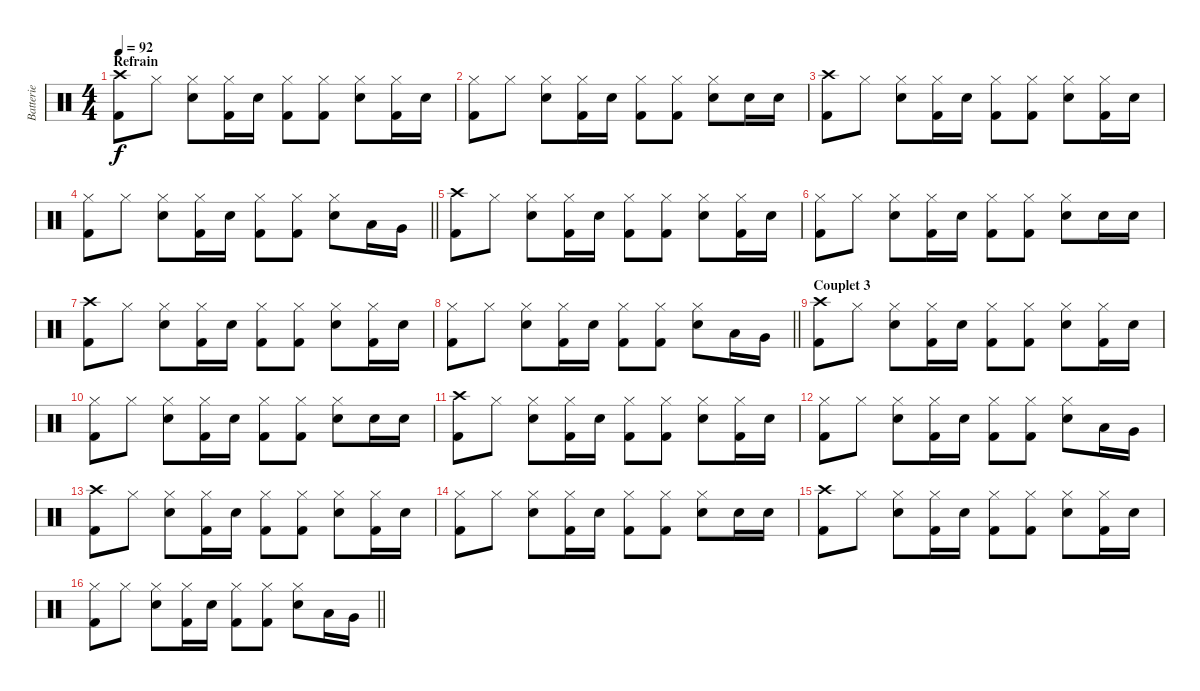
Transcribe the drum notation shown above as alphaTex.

\track ("Batterie" "Batterie") {instrument percussion}
\staff {score}
\articulation defaults
\ts (4 4)
\section ("" "Refrain")
\tempo 92
\clef neutral
\ks c
("Crash high (hit)" "Kick (hit) 2").8{dy f} "Hi-Hat (closed)".8 ("Hi-Hat (closed)" "Electric Snare (hit)").8 ("Hi-Hat (closed)" "Kick (hit) 2").16 "Electric Snare (hit)".16 ("Hi-Hat (closed)" "Kick (hit) 2").8 ("Hi-Hat (closed)" "Kick (hit) 2").8 ("Hi-Hat (closed)" "Electric Snare (hit)").8 ("Hi-Hat (closed)" "Kick (hit) 2").16 "Electric Snare (hit)".16 |
("Hi-Hat (closed)" "Kick (hit) 2").8 "Hi-Hat (closed)".8 ("Hi-Hat (closed)" "Electric Snare (hit)").8 ("Hi-Hat (closed)" "Kick (hit) 2").16 "Electric Snare (hit)".16 ("Hi-Hat (closed)" "Kick (hit) 2").8 ("Hi-Hat (closed)" "Kick (hit) 2").8 ("Hi-Hat (closed)" "Electric Snare (hit)").8 "Electric Snare (hit)".16 "Electric Snare (hit)".16 |
("Crash high (hit)" "Kick (hit) 2").8 "Hi-Hat (closed)".8 ("Hi-Hat (closed)" "Electric Snare (hit)").8 ("Hi-Hat (closed)" "Kick (hit) 2").16 "Electric Snare (hit)".16 ("Hi-Hat (closed)" "Kick (hit) 2").8 ("Hi-Hat (closed)" "Kick (hit) 2").8 ("Hi-Hat (closed)" "Electric Snare (hit)").8 ("Hi-Hat (closed)" "Kick (hit) 2").16 "Electric Snare (hit)".16 |
\barLineRight lightlight
("Hi-Hat (closed)" "Kick (hit) 2").8 "Hi-Hat (closed)".8 ("Hi-Hat (closed)" "Electric Snare (hit)").8 ("Hi-Hat (closed)" "Kick (hit) 2").16 "Electric Snare (hit)".16 ("Hi-Hat (closed)" "Kick (hit) 2").8 ("Hi-Hat (closed)" "Kick (hit) 2").8 ("Hi-Hat (closed)" "Electric Snare (hit)").8 "Low Tom (hit)".16 "Very Low Tom (hit)".16 |
("Crash high (hit)" "Kick (hit) 2").8 "Hi-Hat (closed)".8 ("Hi-Hat (closed)" "Electric Snare (hit)").8 ("Hi-Hat (closed)" "Kick (hit) 2").16 "Electric Snare (hit)".16 ("Hi-Hat (closed)" "Kick (hit) 2").8 ("Hi-Hat (closed)" "Kick (hit) 2").8 ("Hi-Hat (closed)" "Electric Snare (hit)").8 ("Hi-Hat (closed)" "Kick (hit) 2").16 "Electric Snare (hit)".16 |
("Hi-Hat (closed)" "Kick (hit) 2").8 "Hi-Hat (closed)".8 ("Hi-Hat (closed)" "Electric Snare (hit)").8 ("Hi-Hat (closed)" "Kick (hit) 2").16 "Electric Snare (hit)".16 ("Hi-Hat (closed)" "Kick (hit) 2").8 ("Hi-Hat (closed)" "Kick (hit) 2").8 ("Hi-Hat (closed)" "Electric Snare (hit)").8 "Electric Snare (hit)".16 "Electric Snare (hit)".16 |
("Crash high (hit)" "Kick (hit) 2").8 "Hi-Hat (closed)".8 ("Hi-Hat (closed)" "Electric Snare (hit)").8 ("Hi-Hat (closed)" "Kick (hit) 2").16 "Electric Snare (hit)".16 ("Hi-Hat (closed)" "Kick (hit) 2").8 ("Hi-Hat (closed)" "Kick (hit) 2").8 ("Hi-Hat (closed)" "Electric Snare (hit)").8 ("Hi-Hat (closed)" "Kick (hit) 2").16 "Electric Snare (hit)".16 |
\barLineRight lightlight
("Hi-Hat (closed)" "Kick (hit) 2").8 "Hi-Hat (closed)".8 ("Hi-Hat (closed)" "Electric Snare (hit)").8 ("Hi-Hat (closed)" "Kick (hit) 2").16 "Electric Snare (hit)".16 ("Hi-Hat (closed)" "Kick (hit) 2").8 ("Hi-Hat (closed)" "Kick (hit) 2").8 ("Hi-Hat (closed)" "Electric Snare (hit)").8 "Low Tom (hit)".16 "Very Low Tom (hit)".16 |
\section ("" "Couplet 3")
("Crash high (hit)" "Kick (hit) 2").8 "Hi-Hat (closed)".8 ("Hi-Hat (closed)" "Electric Snare (hit)").8 ("Hi-Hat (closed)" "Kick (hit) 2").16 "Electric Snare (hit)".16 ("Hi-Hat (closed)" "Kick (hit) 2").8 ("Hi-Hat (closed)" "Kick (hit) 2").8 ("Hi-Hat (closed)" "Electric Snare (hit)").8 ("Hi-Hat (closed)" "Kick (hit) 2").16 "Electric Snare (hit)".16 |
("Hi-Hat (closed)" "Kick (hit) 2").8 "Hi-Hat (closed)".8 ("Hi-Hat (closed)" "Electric Snare (hit)").8 ("Hi-Hat (closed)" "Kick (hit) 2").16 "Electric Snare (hit)".16 ("Hi-Hat (closed)" "Kick (hit) 2").8 ("Hi-Hat (closed)" "Kick (hit) 2").8 ("Hi-Hat (closed)" "Electric Snare (hit)").8 "Electric Snare (hit)".16 "Electric Snare (hit)".16 |
("Crash high (hit)" "Kick (hit) 2").8 "Hi-Hat (closed)".8 ("Hi-Hat (closed)" "Electric Snare (hit)").8 ("Hi-Hat (closed)" "Kick (hit) 2").16 "Electric Snare (hit)".16 ("Hi-Hat (closed)" "Kick (hit) 2").8 ("Hi-Hat (closed)" "Kick (hit) 2").8 ("Hi-Hat (closed)" "Electric Snare (hit)").8 ("Hi-Hat (closed)" "Kick (hit) 2").16 "Electric Snare (hit)".16 |
("Hi-Hat (closed)" "Kick (hit) 2").8 "Hi-Hat (closed)".8 ("Hi-Hat (closed)" "Electric Snare (hit)").8 ("Hi-Hat (closed)" "Kick (hit) 2").16 "Electric Snare (hit)".16 ("Hi-Hat (closed)" "Kick (hit) 2").8 ("Hi-Hat (closed)" "Kick (hit) 2").8 ("Hi-Hat (closed)" "Electric Snare (hit)").8 "Low Tom (hit)".16 "Very Low Tom (hit)".16 |
("Crash high (hit)" "Kick (hit) 2").8 "Hi-Hat (closed)".8 ("Hi-Hat (closed)" "Electric Snare (hit)").8 ("Hi-Hat (closed)" "Kick (hit) 2").16 "Electric Snare (hit)".16 ("Hi-Hat (closed)" "Kick (hit) 2").8 ("Hi-Hat (closed)" "Kick (hit) 2").8 ("Hi-Hat (closed)" "Electric Snare (hit)").8 ("Hi-Hat (closed)" "Kick (hit) 2").16 "Electric Snare (hit)".16 |
("Hi-Hat (closed)" "Kick (hit) 2").8 "Hi-Hat (closed)".8 ("Hi-Hat (closed)" "Electric Snare (hit)").8 ("Hi-Hat (closed)" "Kick (hit) 2").16 "Electric Snare (hit)".16 ("Hi-Hat (closed)" "Kick (hit) 2").8 ("Hi-Hat (closed)" "Kick (hit) 2").8 ("Hi-Hat (closed)" "Electric Snare (hit)").8 "Electric Snare (hit)".16 "Electric Snare (hit)".16 |
("Crash high (hit)" "Kick (hit) 2").8 "Hi-Hat (closed)".8 ("Hi-Hat (closed)" "Electric Snare (hit)").8 ("Hi-Hat (closed)" "Kick (hit) 2").16 "Electric Snare (hit)".16 ("Hi-Hat (closed)" "Kick (hit) 2").8 ("Hi-Hat (closed)" "Kick (hit) 2").8 ("Hi-Hat (closed)" "Electric Snare (hit)").8 ("Hi-Hat (closed)" "Kick (hit) 2").16 "Electric Snare (hit)".16 |
\barLineRight lightlight
("Hi-Hat (closed)" "Kick (hit) 2").8 "Hi-Hat (closed)".8 ("Hi-Hat (closed)" "Electric Snare (hit)").8 ("Hi-Hat (closed)" "Kick (hit) 2").16 "Electric Snare (hit)".16 ("Hi-Hat (closed)" "Kick (hit) 2").8 ("Hi-Hat (closed)" "Kick (hit) 2").8 ("Hi-Hat (closed)" "Electric Snare (hit)").8 "Low Tom (hit)".16 "Very Low Tom (hit)".16
